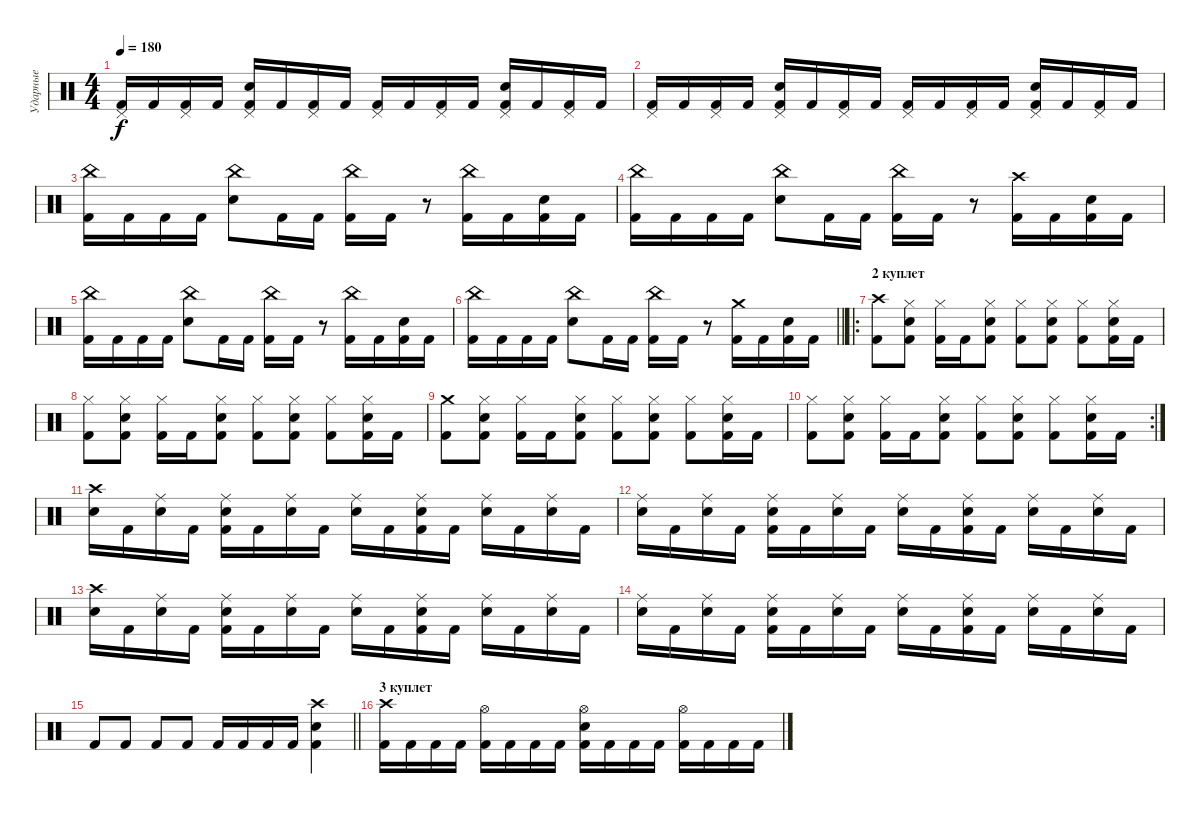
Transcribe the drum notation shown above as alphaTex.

\track ("Ударные" "Ударные") {instrument percussion}
\staff {score}
\articulation defaults
\ts (4 4)
\tempo 180
\clef neutral
\ks c
("Pedal Hi-Hat (hit)" "Kick (hit) 2").16{dy f} "Kick (hit) 2".16 ("Pedal Hi-Hat (hit)" "Kick (hit) 2").16 "Kick (hit) 2".16 ("Snare (hit) 2" "Pedal Hi-Hat (hit)" "Kick (hit) 2").16 "Kick (hit) 2".16 ("Pedal Hi-Hat (hit)" "Kick (hit) 2").16 "Kick (hit) 2".16 ("Pedal Hi-Hat (hit)" "Kick (hit) 2").16 "Kick (hit) 2".16 ("Pedal Hi-Hat (hit)" "Kick (hit) 2").16 "Kick (hit) 2".16 ("Snare (hit) 2" "Pedal Hi-Hat (hit)" "Kick (hit) 2").16 "Kick (hit) 2".16 ("Pedal Hi-Hat (hit)" "Kick (hit) 2").16 "Kick (hit) 2".16 |
("Pedal Hi-Hat (hit)" "Kick (hit) 2").16 "Kick (hit) 2".16 ("Pedal Hi-Hat (hit)" "Kick (hit) 2").16 "Kick (hit) 2".16 ("Snare (hit) 2" "Pedal Hi-Hat (hit)" "Kick (hit) 2").16 "Kick (hit) 2".16 ("Pedal Hi-Hat (hit)" "Kick (hit) 2").16 "Kick (hit) 2".16 ("Pedal Hi-Hat (hit)" "Kick (hit) 2").16 "Kick (hit) 2".16 ("Pedal Hi-Hat (hit)" "Kick (hit) 2").16 "Kick (hit) 2".16 ("Snare (hit) 2" "Pedal Hi-Hat (hit)" "Kick (hit) 2").16 "Kick (hit) 2".16 ("Pedal Hi-Hat (hit)" "Kick (hit) 2").16 "Kick (hit) 2".16 |
("China (hit)" "Kick (hit) 2").16 "Kick (hit) 2".16 "Kick (hit) 2".16 "Kick (hit) 2".16 ("China (hit)" "Snare (hit) 2").8 "Kick (hit) 2".16 "Kick (hit) 2".16 ("China (hit)" "Kick (hit) 2").16 "Kick (hit) 2".16 r.8 ("China (hit)" "Kick (hit) 2").16 "Kick (hit) 2".16 ("Snare (hit) 2" "Kick (hit) 2").16 "Kick (hit) 2".16 |
("China (hit)" "Kick (hit) 2").16 "Kick (hit) 2".16 "Kick (hit) 2".16 "Kick (hit) 2".16 ("China (hit)" "Snare (hit) 2").8 "Kick (hit) 2".16 "Kick (hit) 2".16 ("China (hit)" "Kick (hit) 2").16 "Kick (hit) 2".16 r.8 ("Crash high (hit)" "Kick (hit) 2").16 "Kick (hit) 2".16 ("Snare (hit) 2" "Kick (hit) 2").16 "Kick (hit) 2".16 |
("China (hit)" "Kick (hit) 2").16 "Kick (hit) 2".16 "Kick (hit) 2".16 "Kick (hit) 2".16 ("China (hit)" "Snare (hit) 2").8 "Kick (hit) 2".16 "Kick (hit) 2".16 ("China (hit)" "Kick (hit) 2").16 "Kick (hit) 2".16 r.8 ("China (hit)" "Kick (hit) 2").16 "Kick (hit) 2".16 ("Snare (hit) 2" "Kick (hit) 2").16 "Kick (hit) 2".16 |
\barLineRight lightlight
("China (hit)" "Kick (hit) 2").16 "Kick (hit) 2".16 "Kick (hit) 2".16 "Kick (hit) 2".16 ("China (hit)" "Snare (hit) 2").8 "Kick (hit) 2".16 "Kick (hit) 2".16 ("China (hit)" "Kick (hit) 2").16 "Kick (hit) 2".16 r.8 ("Crash medium (hit)" "Kick (hit) 2").16 "Kick (hit) 2".16 ("Snare (hit) 2" "Kick (hit) 2").16 "Kick (hit) 2".16 |
\ro
\section ("" "2 куплет")
("Crash high (hit)" "Kick (hit) 2").8 ("Snare (hit) 2" "Hi-Hat (closed)" "Kick (hit) 2").8 ("Hi-Hat (closed)" "Kick (hit) 2").16 "Kick (hit) 2".16 ("Snare (hit) 2" "Hi-Hat (closed)" "Kick (hit) 2").8 ("Hi-Hat (closed)" "Kick (hit) 2").8 ("Snare (hit) 2" "Hi-Hat (closed)" "Kick (hit) 2").8 ("Hi-Hat (closed)" "Kick (hit) 2").8 ("Snare (hit) 2" "Hi-Hat (closed)" "Kick (hit) 2").16 "Kick (hit) 2".16 |
("Hi-Hat (closed)" "Kick (hit) 2").8 ("Snare (hit) 2" "Hi-Hat (closed)" "Kick (hit) 2").8 ("Hi-Hat (closed)" "Kick (hit) 2").16 "Kick (hit) 2".16 ("Snare (hit) 2" "Hi-Hat (closed)" "Kick (hit) 2").8 ("Hi-Hat (closed)" "Kick (hit) 2").8 ("Snare (hit) 2" "Hi-Hat (closed)" "Kick (hit) 2").8 ("Hi-Hat (closed)" "Kick (hit) 2").8 ("Snare (hit) 2" "Hi-Hat (closed)" "Kick (hit) 2").16 "Kick (hit) 2".16 |
("Crash medium (hit)" "Kick (hit) 2").8 ("Snare (hit) 2" "Hi-Hat (closed)" "Kick (hit) 2").8 ("Hi-Hat (closed)" "Kick (hit) 2").16 "Kick (hit) 2".16 ("Snare (hit) 2" "Hi-Hat (closed)" "Kick (hit) 2").8 ("Hi-Hat (closed)" "Kick (hit) 2").8 ("Snare (hit) 2" "Hi-Hat (closed)" "Kick (hit) 2").8 ("Hi-Hat (closed)" "Kick (hit) 2").8 ("Snare (hit) 2" "Hi-Hat (closed)" "Kick (hit) 2").16 "Kick (hit) 2".16 |
\rc 2
("Hi-Hat (closed)" "Kick (hit) 2").8 ("Snare (hit) 2" "Hi-Hat (closed)" "Kick (hit) 2").8 ("Hi-Hat (closed)" "Kick (hit) 2").16 "Kick (hit) 2".16 ("Snare (hit) 2" "Hi-Hat (closed)" "Kick (hit) 2").8 ("Hi-Hat (closed)" "Kick (hit) 2").8 ("Snare (hit) 2" "Hi-Hat (closed)" "Kick (hit) 2").8 ("Hi-Hat (closed)" "Kick (hit) 2").8 ("Snare (hit) 2" "Hi-Hat (closed)" "Kick (hit) 2").16 "Kick (hit) 2".16 |
("Snare (hit) 2" "Crash high (hit)").16 "Kick (hit) 2".16 ("Snare (hit) 2" "Ride (middle)").16 "Kick (hit) 2".16 ("Snare (hit) 2" "Ride (middle)" "Kick (hit) 2").16 "Kick (hit) 2".16 ("Snare (hit) 2" "Ride (middle)").16 "Kick (hit) 2".16 ("Snare (hit) 2" "Ride (middle)").16 "Kick (hit) 2".16 ("Snare (hit) 2" "Ride (middle)" "Kick (hit) 2").16 "Kick (hit) 2".16 ("Snare (hit) 2" "Ride (middle)").16 "Kick (hit) 2".16 ("Snare (hit) 2" "Ride (middle)").16 "Kick (hit) 2".16 |
("Snare (hit) 2" "Ride (middle)").16 "Kick (hit) 2".16 ("Snare (hit) 2" "Ride (middle)").16 "Kick (hit) 2".16 ("Snare (hit) 2" "Ride (middle)" "Kick (hit) 2").16 "Kick (hit) 2".16 ("Snare (hit) 2" "Ride (middle)").16 "Kick (hit) 2".16 ("Snare (hit) 2" "Ride (middle)").16 "Kick (hit) 2".16 ("Snare (hit) 2" "Ride (middle)" "Kick (hit) 2").16 "Kick (hit) 2".16 ("Snare (hit) 2" "Ride (middle)").16 "Kick (hit) 2".16 ("Snare (hit) 2" "Ride (middle)").16 "Kick (hit) 2".16 |
("Snare (hit) 2" "Crash high (hit)").16 "Kick (hit) 2".16 ("Snare (hit) 2" "Ride (middle)").16 "Kick (hit) 2".16 ("Snare (hit) 2" "Ride (middle)" "Kick (hit) 2").16 "Kick (hit) 2".16 ("Snare (hit) 2" "Ride (middle)").16 "Kick (hit) 2".16 ("Snare (hit) 2" "Ride (middle)").16 "Kick (hit) 2".16 ("Snare (hit) 2" "Ride (middle)" "Kick (hit) 2").16 "Kick (hit) 2".16 ("Snare (hit) 2" "Ride (middle)").16 "Kick (hit) 2".16 ("Snare (hit) 2" "Ride (middle)").16 "Kick (hit) 2".16 |
("Snare (hit) 2" "Ride (middle)").16 "Kick (hit) 2".16 ("Snare (hit) 2" "Ride (middle)").16 "Kick (hit) 2".16 ("Snare (hit) 2" "Ride (middle)" "Kick (hit) 2").16 "Kick (hit) 2".16 ("Snare (hit) 2" "Ride (middle)").16 "Kick (hit) 2".16 ("Snare (hit) 2" "Ride (middle)").16 "Kick (hit) 2".16 ("Snare (hit) 2" "Ride (middle)" "Kick (hit) 2").16 "Kick (hit) 2".16 ("Snare (hit) 2" "Ride (middle)").16 "Kick (hit) 2".16 ("Snare (hit) 2" "Ride (middle)").16 "Kick (hit) 2".16 |
\barLineRight lightlight "Kick (hit) 2".8 "Kick (hit) 2".8 "Kick (hit) 2".8 "Kick (hit) 2".8 "Kick (hit) 2".16 "Kick (hit) 2".16 "Kick (hit) 2".16 "Kick (hit) 2".16
("Snare (hit) 2" "Crash high (hit)" "Kick (hit) 2").4 |
\section ("" "3 куплет")
("Crash high (hit)" "Kick (hit) 2").16 "Kick (hit) 2".16 "Kick (hit) 2".16 "Kick (hit) 2".16 ("Hi-Hat (open)" "Kick (hit) 2").16 "Kick (hit) 2".16 "Kick (hit) 2".16 "Kick (hit) 2".16 ("Hi-Hat (open)" "Snare (hit) 2" "Kick (hit) 2").16 "Kick (hit) 2".16 "Kick (hit) 2".16 "Kick (hit) 2".16 ("Hi-Hat (open)" "Kick (hit) 2").16 "Kick (hit) 2".16 "Kick (hit) 2".16 "Kick (hit) 2".16
